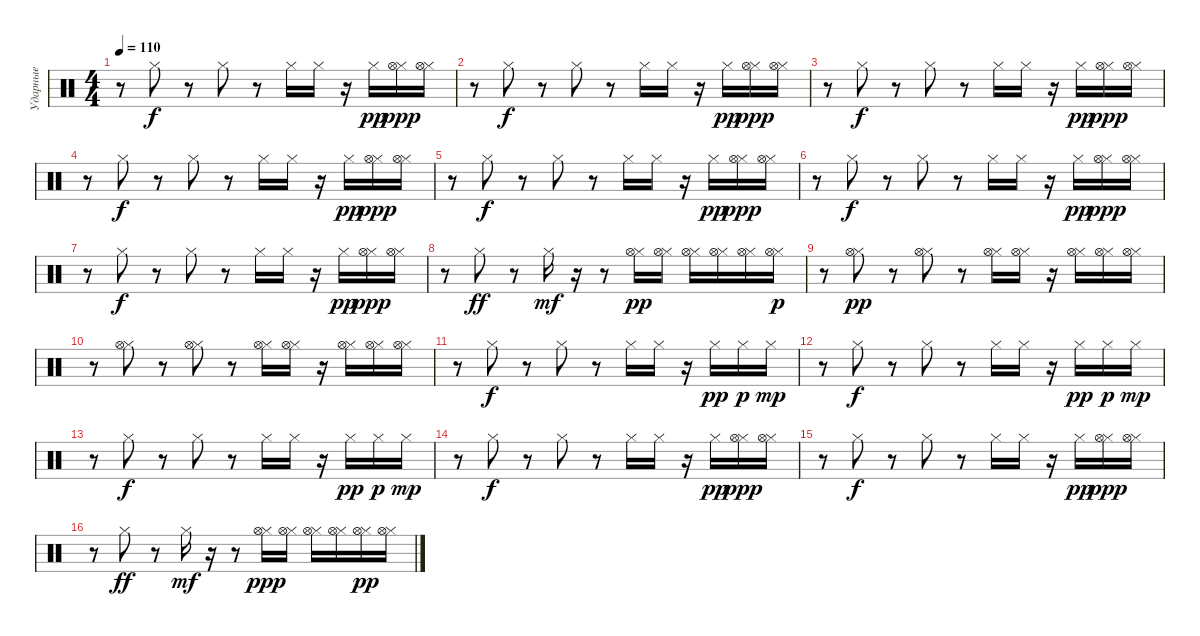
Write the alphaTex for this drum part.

\track ("Ударные" "Ударные") {instrument percussion}
\staff {score}
\articulation defaults
\ts (4 4)
\tempo 110
\clef neutral
\ks c
r.8{dy ppp} "Hi-Hat (closed)".8{dy f} r.8 "Hi-Hat (closed)".8 r.8 "Hi-Hat (closed)".16 "Hi-Hat (closed)".16 r.16 "Hi-Hat (closed)".16{dy pp} ("Hi-Hat (closed)" "Hi-Hat (open)").16{dy ppp} ("Hi-Hat (closed)" "Hi-Hat (open)").16 |
r.8 "Hi-Hat (closed)".8{dy f} r.8 "Hi-Hat (closed)".8 r.8 "Hi-Hat (closed)".16 "Hi-Hat (closed)".16 r.16 "Hi-Hat (closed)".16{dy pp} ("Hi-Hat (closed)" "Hi-Hat (open)").16{dy ppp} ("Hi-Hat (closed)" "Hi-Hat (open)").16 |
r.8 "Hi-Hat (closed)".8{dy f} r.8 "Hi-Hat (closed)".8 r.8 "Hi-Hat (closed)".16 "Hi-Hat (closed)".16 r.16 "Hi-Hat (closed)".16{dy pp} ("Hi-Hat (closed)" "Hi-Hat (open)").16{dy ppp} ("Hi-Hat (closed)" "Hi-Hat (open)").16 |
r.8 "Hi-Hat (closed)".8{dy f} r.8 "Hi-Hat (closed)".8 r.8 "Hi-Hat (closed)".16 "Hi-Hat (closed)".16 r.16 "Hi-Hat (closed)".16{dy pp} ("Hi-Hat (closed)" "Hi-Hat (open)").16{dy ppp} ("Hi-Hat (closed)" "Hi-Hat (open)").16 |
r.8 "Hi-Hat (closed)".8{dy f} r.8 "Hi-Hat (closed)".8 r.8 "Hi-Hat (closed)".16 "Hi-Hat (closed)".16 r.16 "Hi-Hat (closed)".16{dy pp} ("Hi-Hat (closed)" "Hi-Hat (open)").16{dy ppp} ("Hi-Hat (closed)" "Hi-Hat (open)").16 |
r.8 "Hi-Hat (closed)".8{dy f} r.8 "Hi-Hat (closed)".8 r.8 "Hi-Hat (closed)".16 "Hi-Hat (closed)".16 r.16 "Hi-Hat (closed)".16{dy pp} ("Hi-Hat (closed)" "Hi-Hat (open)").16{dy ppp} ("Hi-Hat (closed)" "Hi-Hat (open)").16 |
r.8 "Hi-Hat (closed)".8{dy f} r.8 "Hi-Hat (closed)".8 r.8 "Hi-Hat (closed)".16 "Hi-Hat (closed)".16 r.16 "Hi-Hat (closed)".16{dy pp} ("Hi-Hat (closed)" "Hi-Hat (open)").16{dy ppp} ("Hi-Hat (closed)" "Hi-Hat (open)").16 |
r.8 "Hi-Hat (closed)".8{dy ff} r.8 "Hi-Hat (closed)".16{dy mf} r.16 r.8 ("Hi-Hat (closed)" "Hi-Hat (open)").16{dy pp} ("Hi-Hat (closed)" "Hi-Hat (open)").16 ("Hi-Hat (closed)" "Hi-Hat (open)").16 ("Hi-Hat (closed)" "Hi-Hat (open)").16 ("Hi-Hat (closed)" "Hi-Hat (open)").16 ("Hi-Hat (closed)" "Hi-Hat (open)").16{dy p} |
r.8 ("Hi-Hat (closed)" "Hi-Hat (open)").8{dy pp} r.8 ("Hi-Hat (closed)" "Hi-Hat (open)").8 r.8 ("Hi-Hat (closed)" "Hi-Hat (open)").16 ("Hi-Hat (closed)" "Hi-Hat (open)").16 r.16 ("Hi-Hat (closed)" "Hi-Hat (open)").16 ("Hi-Hat (closed)" "Hi-Hat (open)").16 ("Hi-Hat (closed)" "Hi-Hat (open)").16 |
r.8 ("Hi-Hat (closed)" "Hi-Hat (open)").8 r.8 ("Hi-Hat (closed)" "Hi-Hat (open)").8 r.8 ("Hi-Hat (closed)" "Hi-Hat (open)").16 ("Hi-Hat (closed)" "Hi-Hat (open)").16 r.16 ("Hi-Hat (closed)" "Hi-Hat (open)").16 ("Hi-Hat (closed)" "Hi-Hat (open)").16 ("Hi-Hat (closed)" "Hi-Hat (open)").16 |
r.8 "Hi-Hat (closed)".8{dy f} r.8 "Hi-Hat (closed)".8 r.8 "Hi-Hat (closed)".16 "Hi-Hat (closed)".16 r.16 "Hi-Hat (closed)".16{dy pp} "Hi-Hat (closed)".16{dy p} "Hi-Hat (closed)".16{dy mp} |
r.8 "Hi-Hat (closed)".8{dy f} r.8 "Hi-Hat (closed)".8 r.8 "Hi-Hat (closed)".16 "Hi-Hat (closed)".16 r.16 "Hi-Hat (closed)".16{dy pp} "Hi-Hat (closed)".16{dy p} "Hi-Hat (closed)".16{dy mp} |
r.8 "Hi-Hat (closed)".8{dy f} r.8 "Hi-Hat (closed)".8 r.8 "Hi-Hat (closed)".16 "Hi-Hat (closed)".16 r.16 "Hi-Hat (closed)".16{dy pp} "Hi-Hat (closed)".16{dy p} "Hi-Hat (closed)".16{dy mp} |
r.8 "Hi-Hat (closed)".8{dy f} r.8 "Hi-Hat (closed)".8 r.8 "Hi-Hat (closed)".16 "Hi-Hat (closed)".16 r.16 "Hi-Hat (closed)".16{dy pp} ("Hi-Hat (closed)" "Hi-Hat (open)").16{dy ppp} ("Hi-Hat (closed)" "Hi-Hat (open)").16 |
r.8 "Hi-Hat (closed)".8{dy f} r.8 "Hi-Hat (closed)".8 r.8 "Hi-Hat (closed)".16 "Hi-Hat (closed)".16 r.16 "Hi-Hat (closed)".16{dy pp} ("Hi-Hat (closed)" "Hi-Hat (open)").16{dy ppp} ("Hi-Hat (closed)" "Hi-Hat (open)").16 |
r.8 "Hi-Hat (closed)".8{dy ff} r.8 "Hi-Hat (closed)".16{dy mf} r.16 r.8 ("Hi-Hat (closed)" "Hi-Hat (open)").16{dy ppp} ("Hi-Hat (closed)" "Hi-Hat (open)").16 ("Hi-Hat (closed)" "Hi-Hat (open)").16 ("Hi-Hat (closed)" "Hi-Hat (open)").16 ("Hi-Hat (closed)" "Hi-Hat (open)").16{dy pp} ("Hi-Hat (closed)" "Hi-Hat (open)").16
